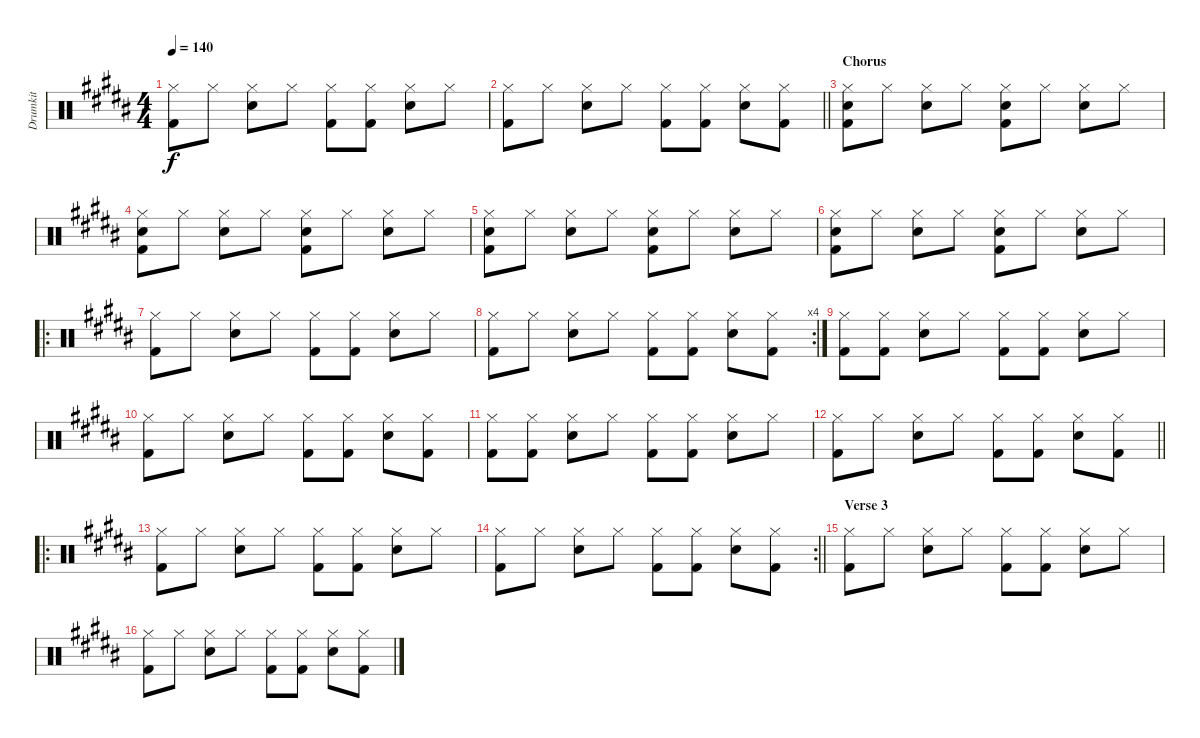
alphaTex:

\track ("Drumkit" "Drumkit") {instrument percussion}
\staff {score}
\articulation defaults
\ts (4 4)
\tempo 140
\clef neutral
\ks b
("Hi-Hat (closed)" "Kick (hit) 2").8{dy f} "Hi-Hat (closed)".8 ("Hi-Hat (closed)" "Snare (hit) 2").8 "Hi-Hat (closed)".8 ("Hi-Hat (closed)" "Kick (hit) 2").8 ("Hi-Hat (closed)" "Kick (hit) 2").8 ("Hi-Hat (closed)" "Snare (hit) 2").8 "Hi-Hat (closed)".8 |
\barLineRight lightlight
("Hi-Hat (closed)" "Kick (hit) 2").8 "Hi-Hat (closed)".8 ("Hi-Hat (closed)" "Snare (hit) 2").8 "Hi-Hat (closed)".8 ("Hi-Hat (closed)" "Kick (hit) 2").8 ("Hi-Hat (closed)" "Kick (hit) 2").8 ("Hi-Hat (closed)" "Snare (hit) 2").8 ("Hi-Hat (closed)" "Kick (hit) 2").8 |
\section ("" "Chorus")
("Hi-Hat (closed)" "Snare (hit) 2" "Kick (hit) 2").8 "Hi-Hat (closed)".8 ("Hi-Hat (closed)" "Snare (hit) 2").8 "Hi-Hat (closed)".8 ("Hi-Hat (closed)" "Snare (hit) 2" "Kick (hit) 2").8 "Hi-Hat (closed)".8 ("Hi-Hat (closed)" "Snare (hit) 2").8 "Hi-Hat (closed)".8 |
("Hi-Hat (closed)" "Snare (hit) 2" "Kick (hit) 2").8 "Hi-Hat (closed)".8 ("Hi-Hat (closed)" "Snare (hit) 2").8 "Hi-Hat (closed)".8 ("Hi-Hat (closed)" "Snare (hit) 2" "Kick (hit) 2").8 "Hi-Hat (closed)".8 ("Hi-Hat (closed)" "Snare (hit) 2").8 "Hi-Hat (closed)".8 |
("Hi-Hat (closed)" "Snare (hit) 2" "Kick (hit) 2").8 "Hi-Hat (closed)".8 ("Hi-Hat (closed)" "Snare (hit) 2").8 "Hi-Hat (closed)".8 ("Hi-Hat (closed)" "Snare (hit) 2" "Kick (hit) 2").8 "Hi-Hat (closed)".8 ("Hi-Hat (closed)" "Snare (hit) 2").8 "Hi-Hat (closed)".8 |
("Hi-Hat (closed)" "Snare (hit) 2" "Kick (hit) 2").8 "Hi-Hat (closed)".8 ("Hi-Hat (closed)" "Snare (hit) 2").8 "Hi-Hat (closed)".8 ("Hi-Hat (closed)" "Snare (hit) 2" "Kick (hit) 2").8 "Hi-Hat (closed)".8 ("Hi-Hat (closed)" "Snare (hit) 2").8 "Hi-Hat (closed)".8 |
\ro
("Hi-Hat (closed)" "Kick (hit) 2").8 "Hi-Hat (closed)".8 ("Hi-Hat (closed)" "Snare (hit) 2").8 "Hi-Hat (closed)".8 ("Hi-Hat (closed)" "Kick (hit) 2").8 ("Hi-Hat (closed)" "Kick (hit) 2").8 ("Hi-Hat (closed)" "Snare (hit) 2").8 "Hi-Hat (closed)".8 |
\rc 4
("Hi-Hat (closed)" "Kick (hit) 2").8 "Hi-Hat (closed)".8 ("Hi-Hat (closed)" "Snare (hit) 2").8 "Hi-Hat (closed)".8 ("Hi-Hat (closed)" "Kick (hit) 2").8 ("Hi-Hat (closed)" "Kick (hit) 2").8 ("Hi-Hat (closed)" "Snare (hit) 2").8 ("Hi-Hat (closed)" "Kick (hit) 2").8 |
("Hi-Hat (closed)" "Kick (hit) 2").8 ("Hi-Hat (closed)" "Kick (hit) 2").8 ("Hi-Hat (closed)" "Snare (hit) 2").8 "Hi-Hat (closed)".8 ("Hi-Hat (closed)" "Kick (hit) 2").8 ("Hi-Hat (closed)" "Kick (hit) 2").8 ("Hi-Hat (closed)" "Snare (hit) 2").8 "Hi-Hat (closed)".8 |
("Hi-Hat (closed)" "Kick (hit) 2").8 "Hi-Hat (closed)".8 ("Hi-Hat (closed)" "Snare (hit) 2").8 "Hi-Hat (closed)".8 ("Hi-Hat (closed)" "Kick (hit) 2").8 ("Hi-Hat (closed)" "Kick (hit) 2").8 ("Hi-Hat (closed)" "Snare (hit) 2").8 ("Hi-Hat (closed)" "Kick (hit) 2").8 |
("Hi-Hat (closed)" "Kick (hit) 2").8 ("Hi-Hat (closed)" "Kick (hit) 2").8 ("Hi-Hat (closed)" "Snare (hit) 2").8 "Hi-Hat (closed)".8 ("Hi-Hat (closed)" "Kick (hit) 2").8 ("Hi-Hat (closed)" "Kick (hit) 2").8 ("Hi-Hat (closed)" "Snare (hit) 2").8 "Hi-Hat (closed)".8 |
\barLineRight lightlight
("Hi-Hat (closed)" "Kick (hit) 2").8 "Hi-Hat (closed)".8 ("Hi-Hat (closed)" "Snare (hit) 2").8 "Hi-Hat (closed)".8 ("Hi-Hat (closed)" "Kick (hit) 2").8 ("Hi-Hat (closed)" "Kick (hit) 2").8 ("Hi-Hat (closed)" "Snare (hit) 2").8 ("Hi-Hat (closed)" "Kick (hit) 2").8 |
\ro
("Hi-Hat (closed)" "Kick (hit) 2").8 "Hi-Hat (closed)".8 ("Hi-Hat (closed)" "Snare (hit) 2").8 "Hi-Hat (closed)".8 ("Hi-Hat (closed)" "Kick (hit) 2").8 ("Hi-Hat (closed)" "Kick (hit) 2").8 ("Hi-Hat (closed)" "Snare (hit) 2").8 "Hi-Hat (closed)".8 |
\rc 2
\barLineRight lightlight
("Hi-Hat (closed)" "Kick (hit) 2").8 "Hi-Hat (closed)".8 ("Hi-Hat (closed)" "Snare (hit) 2").8 "Hi-Hat (closed)".8 ("Hi-Hat (closed)" "Kick (hit) 2").8 ("Hi-Hat (closed)" "Kick (hit) 2").8 ("Hi-Hat (closed)" "Snare (hit) 2").8 ("Hi-Hat (closed)" "Kick (hit) 2").8 |
\section ("" "Verse 3")
("Hi-Hat (closed)" "Kick (hit) 2").8 "Hi-Hat (closed)".8 ("Hi-Hat (closed)" "Snare (hit) 2").8 "Hi-Hat (closed)".8 ("Hi-Hat (closed)" "Kick (hit) 2").8 ("Hi-Hat (closed)" "Kick (hit) 2").8 ("Hi-Hat (closed)" "Snare (hit) 2").8 "Hi-Hat (closed)".8 |
("Hi-Hat (closed)" "Kick (hit) 2").8 "Hi-Hat (closed)".8 ("Hi-Hat (closed)" "Snare (hit) 2").8 "Hi-Hat (closed)".8 ("Hi-Hat (closed)" "Kick (hit) 2").8 ("Hi-Hat (closed)" "Kick (hit) 2").8 ("Hi-Hat (closed)" "Snare (hit) 2").8 ("Hi-Hat (closed)" "Kick (hit) 2").8
